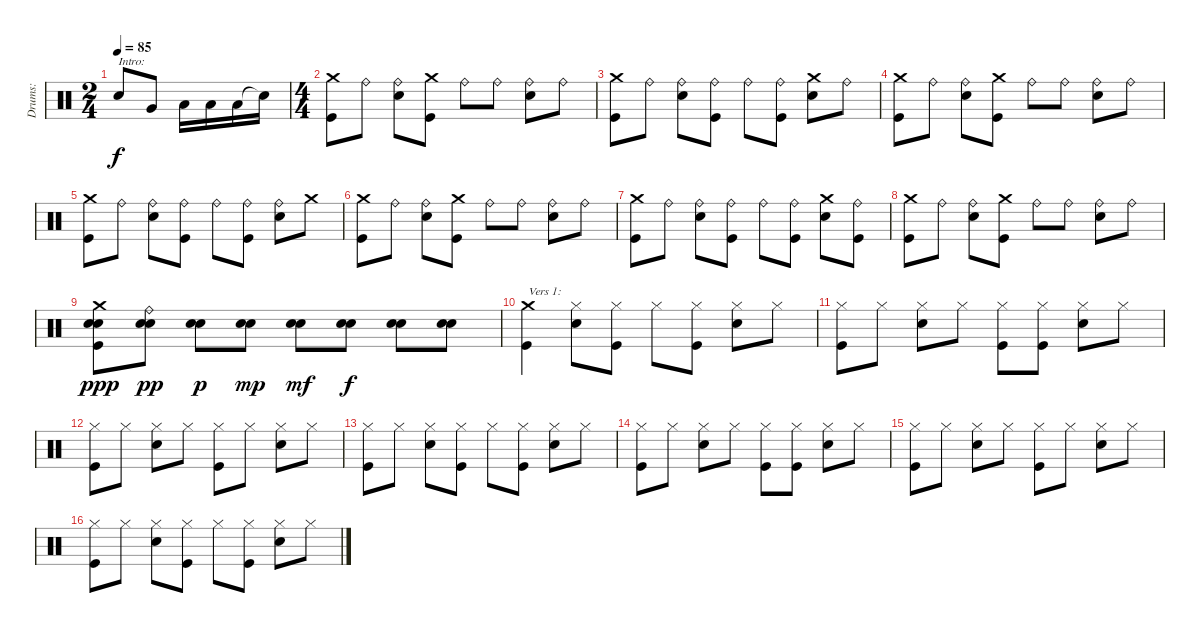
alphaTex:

\track ("Drums:" "Drums:") {instrument percussion}
\staff {score}
\articulation defaults
\ts (2 4)
\tempo 85
\clef neutral
\ks c "Snare (hit) 2".8{txt "Intro:" dy f} "Very Low Tom (hit)".8 "Low Floor Tom (hit)".16 "Low Floor Tom (hit)".16 "Low Floor Tom (hit)".16 "Snare (hit)"{t}.16
|
\ts (4 4)
("Crash medium (hit)" "Kick (hit)").8 "Ride (bell)".8 ("Ride (bell)" "Snare (hit) 2").8 ("Crash medium (hit)" "Kick (hit)").8 "Ride (bell)".8 "Ride (bell)".8 ("Ride (bell)" "Snare (hit) 2").8 "Ride (bell)".8 |
("Crash medium (hit)" "Kick (hit)").8 "Ride (bell)".8 ("Ride (bell)" "Snare (hit) 2").8 ("Ride (bell)" "Kick (hit)").8 "Ride (bell)".8 ("Ride (bell)" "Kick (hit)").8 ("Crash medium (hit)" "Snare (hit) 2").8 "Ride (bell)".8 |
("Crash medium (hit)" "Kick (hit)").8 "Ride (bell)".8 ("Ride (bell)" "Snare (hit) 2").8 ("Crash medium (hit)" "Kick (hit)").8 "Ride (bell)".8 "Ride (bell)".8 ("Ride (bell)" "Snare (hit) 2").8 "Ride (bell)".8 |
("Crash medium (hit)" "Kick (hit)").8 "Ride (bell)".8 ("Ride (bell)" "Snare (hit) 2").8 ("Ride (bell)" "Kick (hit)").8 "Ride (bell)".8 ("Ride (bell)" "Kick (hit)").8 ("Ride (bell)" "Snare (hit) 2").8 "Crash medium (hit)".8 |
("Crash medium (hit)" "Kick (hit)").8 "Ride (bell)".8 ("Ride (bell)" "Snare (hit) 2").8 ("Crash medium (hit)" "Kick (hit)").8 "Ride (bell)".8 "Ride (bell)".8 ("Ride (bell)" "Snare (hit) 2").8 "Ride (bell)".8 |
("Crash medium (hit)" "Kick (hit)").8 "Ride (bell)".8 ("Ride (bell)" "Snare (hit) 2").8 ("Ride (bell)" "Kick (hit)").8 "Ride (bell)".8 ("Ride (bell)" "Kick (hit)").8 ("Crash medium (hit)" "Snare (hit) 2").8 ("Ride (bell)" "Kick (hit)").8 |
("Crash medium (hit)" "Kick (hit)").8 "Ride (bell)".8 ("Ride (bell)" "Snare (hit) 2").8 ("Crash medium (hit)" "Kick (hit)").8 "Ride (bell)".8 "Ride (bell)".8 ("Ride (bell)" "Snare (hit) 2").8 "Ride (bell)".8 |
("Crash medium (hit)" "Electric Snare (hit)" "Snare (hit) 2" "Kick (hit)").8{dy ppp} ("Ride (bell)" "Electric Snare (hit)" "Snare (hit) 2").8{dy pp} ("Electric Snare (hit)" "Snare (hit) 2").8{dy p} ("Electric Snare (hit)" "Snare (hit) 2").8{dy mp} ("Electric Snare (hit)" "Snare (hit) 2").8{dy mf} ("Electric Snare (hit)" "Snare (hit) 2").8{dy f} ("Electric Snare (hit)" "Snare (hit) 2").8 ("Electric Snare (hit)" "Snare (hit) 2").8 |
("Crash medium (hit)" "Kick (hit)").4{txt "Vers 1:"} ("Hi-Hat (closed)" "Snare (hit) 2").8 ("Hi-Hat (closed)" "Kick (hit)").8 "Hi-Hat (closed)".8 ("Hi-Hat (closed)" "Kick (hit)").8 ("Hi-Hat (closed)" "Snare (hit) 2").8 "Hi-Hat (closed)".8 |
("Hi-Hat (closed)" "Kick (hit)").8 "Hi-Hat (closed)".8 ("Hi-Hat (closed)" "Snare (hit) 2").8 "Hi-Hat (closed)".8 ("Hi-Hat (closed)" "Kick (hit)").8 ("Hi-Hat (closed)" "Kick (hit)").8 ("Hi-Hat (closed)" "Snare (hit) 2").8 "Hi-Hat (closed)".8 |
("Hi-Hat (closed)" "Kick (hit)").8 "Hi-Hat (closed)".8 ("Hi-Hat (closed)" "Snare (hit) 2").8 "Hi-Hat (closed)".8 ("Hi-Hat (closed)" "Kick (hit)").8 "Hi-Hat (closed)".8 ("Hi-Hat (closed)" "Snare (hit) 2").8 "Hi-Hat (closed)".8 |
("Hi-Hat (closed)" "Kick (hit)").8 "Hi-Hat (closed)".8 ("Hi-Hat (closed)" "Snare (hit) 2").8 ("Hi-Hat (closed)" "Kick (hit)").8 "Hi-Hat (closed)".8 ("Hi-Hat (closed)" "Kick (hit)").8 ("Hi-Hat (closed)" "Snare (hit) 2").8 "Hi-Hat (closed)".8 |
("Hi-Hat (closed)" "Kick (hit)").8 "Hi-Hat (closed)".8 ("Hi-Hat (closed)" "Snare (hit) 2").8 "Hi-Hat (closed)".8 ("Hi-Hat (closed)" "Kick (hit)").8 ("Hi-Hat (closed)" "Kick (hit)").8 ("Hi-Hat (closed)" "Snare (hit) 2").8 "Hi-Hat (closed)".8 |
("Hi-Hat (closed)" "Kick (hit)").8 "Hi-Hat (closed)".8 ("Hi-Hat (closed)" "Snare (hit) 2").8 "Hi-Hat (closed)".8 ("Hi-Hat (closed)" "Kick (hit)").8 "Hi-Hat (closed)".8 ("Hi-Hat (closed)" "Snare (hit) 2").8 "Hi-Hat (closed)".8 |
("Hi-Hat (closed)" "Kick (hit)").8 "Hi-Hat (closed)".8 ("Hi-Hat (closed)" "Snare (hit) 2").8 ("Hi-Hat (closed)" "Kick (hit)").8 "Hi-Hat (closed)".8 ("Hi-Hat (closed)" "Kick (hit)").8 ("Hi-Hat (closed)" "Snare (hit) 2").8 "Hi-Hat (closed)".8
